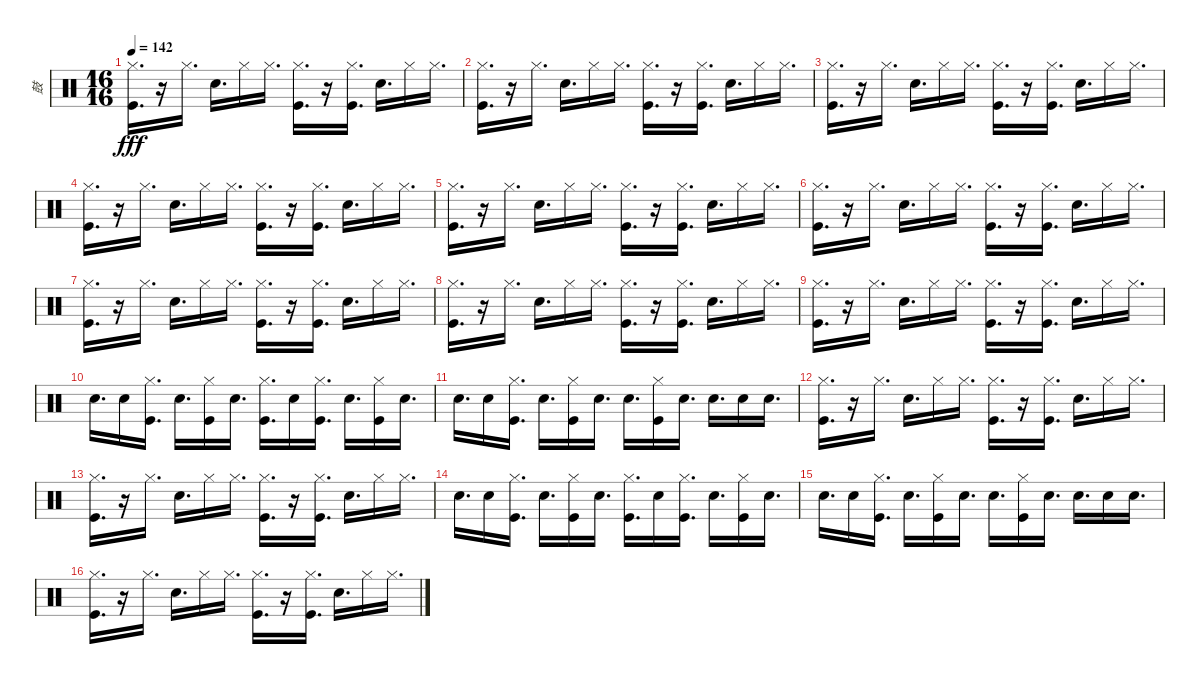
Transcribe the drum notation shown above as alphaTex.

\track ("鼓" "鼓") {instrument percussion}
\staff {score}
\articulation defaults
\ts (16 16)
\tempo 142
\clef neutral
\ks c
("Hi-Hat (closed)" "Kick (hit)").16{d dy fff} r.16 "Hi-Hat (closed)".16{d} "Snare (hit) 2".16{d} "Hi-Hat (closed)".16 "Hi-Hat (closed)".16{d} ("Hi-Hat (closed)" "Kick (hit)").16{d} r.16 ("Hi-Hat (closed)" "Kick (hit)").16{d} "Snare (hit) 2".16{d} "Hi-Hat (closed)".16 "Hi-Hat (closed)".16{d} |
("Hi-Hat (closed)" "Kick (hit)").16{d} r.16 "Hi-Hat (closed)".16{d} "Snare (hit) 2".16{d} "Hi-Hat (closed)".16 "Hi-Hat (closed)".16{d} ("Hi-Hat (closed)" "Kick (hit)").16{d} r.16 ("Hi-Hat (closed)" "Kick (hit)").16{d} "Snare (hit) 2".16{d} "Hi-Hat (closed)".16 "Hi-Hat (closed)".16{d} |
("Hi-Hat (closed)" "Kick (hit)").16{d} r.16 "Hi-Hat (closed)".16{d} "Snare (hit) 2".16{d} "Hi-Hat (closed)".16 "Hi-Hat (closed)".16{d} ("Hi-Hat (closed)" "Kick (hit)").16{d} r.16 ("Hi-Hat (closed)" "Kick (hit)").16{d} "Snare (hit) 2".16{d} "Hi-Hat (closed)".16 "Hi-Hat (closed)".16{d} |
("Hi-Hat (closed)" "Kick (hit)").16{d} r.16 "Hi-Hat (closed)".16{d} "Snare (hit) 2".16{d} "Hi-Hat (closed)".16 "Hi-Hat (closed)".16{d} ("Hi-Hat (closed)" "Kick (hit)").16{d} r.16 ("Hi-Hat (closed)" "Kick (hit)").16{d} "Snare (hit) 2".16{d} "Hi-Hat (closed)".16 "Hi-Hat (closed)".16{d} |
("Hi-Hat (closed)" "Kick (hit)").16{d} r.16 "Hi-Hat (closed)".16{d} "Snare (hit) 2".16{d} "Hi-Hat (closed)".16 "Hi-Hat (closed)".16{d} ("Hi-Hat (closed)" "Kick (hit)").16{d} r.16 ("Hi-Hat (closed)" "Kick (hit)").16{d} "Snare (hit) 2".16{d} "Hi-Hat (closed)".16 "Hi-Hat (closed)".16{d} |
("Hi-Hat (closed)" "Kick (hit)").16{d} r.16 "Hi-Hat (closed)".16{d} "Snare (hit) 2".16{d} "Hi-Hat (closed)".16 "Hi-Hat (closed)".16{d} ("Hi-Hat (closed)" "Kick (hit)").16{d} r.16 ("Hi-Hat (closed)" "Kick (hit)").16{d} "Snare (hit) 2".16{d} "Hi-Hat (closed)".16 "Hi-Hat (closed)".16{d} |
("Hi-Hat (closed)" "Kick (hit)").16{d} r.16 "Hi-Hat (closed)".16{d} "Snare (hit) 2".16{d} "Hi-Hat (closed)".16 "Hi-Hat (closed)".16{d} ("Hi-Hat (closed)" "Kick (hit)").16{d} r.16 ("Hi-Hat (closed)" "Kick (hit)").16{d} "Snare (hit) 2".16{d} "Hi-Hat (closed)".16 "Hi-Hat (closed)".16{d} |
("Hi-Hat (closed)" "Kick (hit)").16{d} r.16 "Hi-Hat (closed)".16{d} "Snare (hit) 2".16{d} "Hi-Hat (closed)".16 "Hi-Hat (closed)".16{d} ("Hi-Hat (closed)" "Kick (hit)").16{d} r.16 ("Hi-Hat (closed)" "Kick (hit)").16{d} "Snare (hit) 2".16{d} "Hi-Hat (closed)".16 "Hi-Hat (closed)".16{d} |
("Hi-Hat (closed)" "Kick (hit)").16{d} r.16 "Hi-Hat (closed)".16{d} "Snare (hit) 2".16{d} "Hi-Hat (closed)".16 "Hi-Hat (closed)".16{d} ("Hi-Hat (closed)" "Kick (hit)").16{d} r.16 ("Hi-Hat (closed)" "Kick (hit)").16{d} "Snare (hit) 2".16{d} "Hi-Hat (closed)".16 "Hi-Hat (closed)".16{d} |
"Snare (hit) 2".16{d} "Snare (hit) 2".16 ("Hi-Hat (closed)" "Kick (hit)").16{d} "Snare (hit) 2".16{d} ("Hi-Hat (closed)" "Kick (hit)").16 "Snare (hit) 2".16{d} ("Hi-Hat (closed)" "Kick (hit)").16{d} "Snare (hit) 2".16 ("Hi-Hat (closed)" "Kick (hit)").16{d} "Snare (hit) 2".16{d} ("Hi-Hat (closed)" "Kick (hit)").16 "Snare (hit) 2".16{d} |
"Snare (hit) 2".16{d} "Snare (hit) 2".16 ("Hi-Hat (closed)" "Kick (hit)").16{d} "Snare (hit) 2".16{d} ("Hi-Hat (closed)" "Kick (hit)").16 "Snare (hit) 2".16{d} "Snare (hit) 2".16{d} ("Hi-Hat (closed)" "Kick (hit)").16 "Snare (hit) 2".16{d} "Snare (hit) 2".16{d} "Snare (hit) 2".16 "Snare (hit) 2".16{d} |
("Hi-Hat (closed)" "Kick (hit)").16{d} r.16 "Hi-Hat (closed)".16{d} "Snare (hit) 2".16{d} "Hi-Hat (closed)".16 "Hi-Hat (closed)".16{d} ("Hi-Hat (closed)" "Kick (hit)").16{d} r.16 ("Hi-Hat (closed)" "Kick (hit)").16{d} "Snare (hit) 2".16{d} "Hi-Hat (closed)".16 "Hi-Hat (closed)".16{d} |
("Hi-Hat (closed)" "Kick (hit)").16{d} r.16 "Hi-Hat (closed)".16{d} "Snare (hit) 2".16{d} "Hi-Hat (closed)".16 "Hi-Hat (closed)".16{d} ("Hi-Hat (closed)" "Kick (hit)").16{d} r.16 ("Hi-Hat (closed)" "Kick (hit)").16{d} "Snare (hit) 2".16{d} "Hi-Hat (closed)".16 "Hi-Hat (closed)".16{d} |
"Snare (hit) 2".16{d} "Snare (hit) 2".16 ("Hi-Hat (closed)" "Kick (hit)").16{d} "Snare (hit) 2".16{d} ("Hi-Hat (closed)" "Kick (hit)").16 "Snare (hit) 2".16{d} ("Hi-Hat (closed)" "Kick (hit)").16{d} "Snare (hit) 2".16 ("Hi-Hat (closed)" "Kick (hit)").16{d} "Snare (hit) 2".16{d} ("Hi-Hat (closed)" "Kick (hit)").16 "Snare (hit) 2".16{d} |
"Snare (hit) 2".16{d} "Snare (hit) 2".16 ("Hi-Hat (closed)" "Kick (hit)").16{d} "Snare (hit) 2".16{d} ("Hi-Hat (closed)" "Kick (hit)").16 "Snare (hit) 2".16{d} "Snare (hit) 2".16{d} ("Hi-Hat (closed)" "Kick (hit)").16 "Snare (hit) 2".16{d} "Snare (hit) 2".16{d} "Snare (hit) 2".16 "Snare (hit) 2".16{d} |
("Hi-Hat (closed)" "Kick (hit)").16{d} r.16 "Hi-Hat (closed)".16{d} "Snare (hit) 2".16{d} "Hi-Hat (closed)".16 "Hi-Hat (closed)".16{d} ("Hi-Hat (closed)" "Kick (hit)").16{d} r.16 ("Hi-Hat (closed)" "Kick (hit)").16{d} "Snare (hit) 2".16{d} "Hi-Hat (closed)".16 "Hi-Hat (closed)".16{d}
